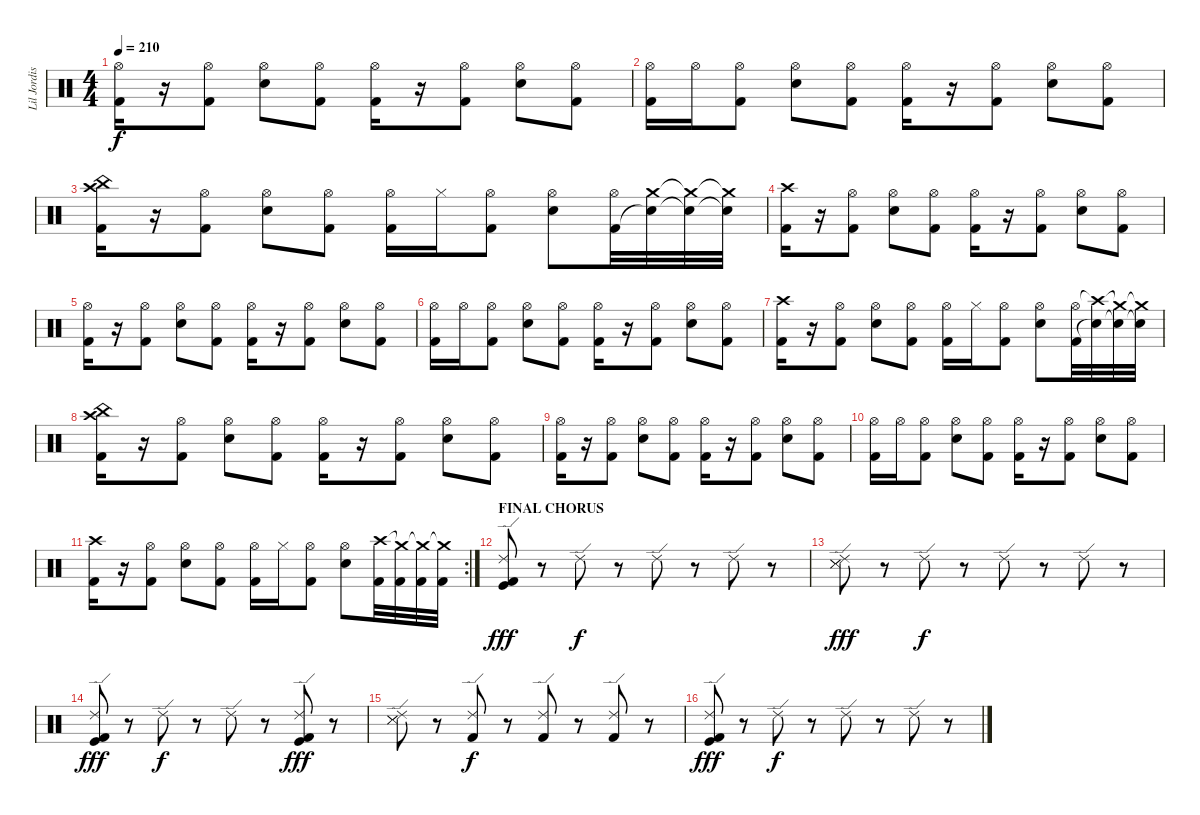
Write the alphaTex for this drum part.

\track ("Lil Jordison" "Lil Jordis") {instrument percussion}
\staff {score}
\articulation defaults
\ts (4 4)
\tempo 210
\clef neutral
\ks c
("Hi-Hat (open)" "Kick (hit) 2").16{dy f} r.16 ("Hi-Hat (open)" "Kick (hit) 2").8 ("Hi-Hat (open)" "Electric Snare (hit)").8 ("Hi-Hat (open)" "Kick (hit) 2").8 ("Hi-Hat (open)" "Kick (hit) 2").16 r.16 ("Hi-Hat (open)" "Kick (hit) 2").8 ("Hi-Hat (open)" "Electric Snare (hit)").8 ("Hi-Hat (open)" "Kick (hit) 2").8 |
("Hi-Hat (open)" "Kick (hit) 2").16 "Hi-Hat (open)".16 ("Hi-Hat (open)" "Kick (hit) 2").8 ("Hi-Hat (open)" "Electric Snare (hit)").8 ("Hi-Hat (open)" "Kick (hit) 2").8 ("Hi-Hat (open)" "Kick (hit) 2").16 r.16 ("Hi-Hat (open)" "Kick (hit) 2").8 ("Hi-Hat (open)" "Electric Snare (hit)").8 ("Hi-Hat (open)" "Kick (hit) 2").8 |
("Crash high (hit)" "China (hit)" "Kick (hit) 2").16 r.16 ("Hi-Hat (open)" "Kick (hit) 2").8 ("Hi-Hat (open)" "Electric Snare (hit)").8 ("Hi-Hat (open)" "Kick (hit) 2").8 ("Hi-Hat (open)" "Kick (hit) 2").16 "Hi-Hat (closed)".16 ("Hi-Hat (open)" "Kick (hit) 2").8 ("Hi-Hat (open)" "Electric Snare (hit)").8 ("Hi-Hat (open)" "Kick (hit) 2").32 ("Crash medium (hit)" "Electric Snare (hit)"{t}).32 ("Crash medium (hit)"{t} "Electric Snare (hit)"{t}).32 ("Crash medium (hit)"{t} "Electric Snare (hit)"{t}).32 |
("Crash high (hit)" "Kick (hit) 2").16 r.16 ("Hi-Hat (open)" "Kick (hit) 2").8 ("Hi-Hat (open)" "Electric Snare (hit)").8 ("Hi-Hat (open)" "Kick (hit) 2").8 ("Hi-Hat (open)" "Kick (hit) 2").16 r.16 ("Hi-Hat (open)" "Kick (hit) 2").8 ("Hi-Hat (open)" "Electric Snare (hit)").8 ("Hi-Hat (open)" "Kick (hit) 2").8 |
("Hi-Hat (open)" "Kick (hit) 2").16 r.16 ("Hi-Hat (open)" "Kick (hit) 2").8 ("Hi-Hat (open)" "Electric Snare (hit)").8 ("Hi-Hat (open)" "Kick (hit) 2").8 ("Hi-Hat (open)" "Kick (hit) 2").16 r.16 ("Hi-Hat (open)" "Kick (hit) 2").8 ("Hi-Hat (open)" "Electric Snare (hit)").8 ("Hi-Hat (open)" "Kick (hit) 2").8 |
("Hi-Hat (open)" "Kick (hit) 2").16 "Hi-Hat (open)".16 ("Hi-Hat (open)" "Kick (hit) 2").8 ("Hi-Hat (open)" "Electric Snare (hit)").8 ("Hi-Hat (open)" "Kick (hit) 2").8 ("Hi-Hat (open)" "Kick (hit) 2").16 r.16 ("Hi-Hat (open)" "Kick (hit) 2").8 ("Hi-Hat (open)" "Electric Snare (hit)").8 ("Hi-Hat (open)" "Kick (hit) 2").8 |
("Crash high (hit)" "Kick (hit) 2").16 r.16 ("Hi-Hat (open)" "Kick (hit) 2").8 ("Hi-Hat (open)" "Electric Snare (hit)").8 ("Hi-Hat (open)" "Kick (hit) 2").8 ("Hi-Hat (open)" "Kick (hit) 2").16 "Hi-Hat (closed)".16 ("Hi-Hat (open)" "Kick (hit) 2").8 ("Hi-Hat (open)" "Electric Snare (hit)").8 ("Hi-Hat (open)" "Kick (hit) 2").32 ("Crash high (hit)"{t} "Electric Snare (hit)"{t}).32 ("Crash medium (hit)"{t} "Electric Snare (hit)"{t}).32 ("Crash medium (hit)"{t} "Electric Snare (hit)"{t}).32 |
("Crash high (hit)" "China (hit)" "Kick (hit) 2").16 r.16 ("Hi-Hat (open)" "Kick (hit) 2").8 ("Hi-Hat (open)" "Electric Snare (hit)").8 ("Hi-Hat (open)" "Kick (hit) 2").8 ("Hi-Hat (open)" "Kick (hit) 2").16 r.16 ("Hi-Hat (open)" "Kick (hit) 2").8 ("Hi-Hat (open)" "Electric Snare (hit)").8 ("Hi-Hat (open)" "Kick (hit) 2").8 |
("Hi-Hat (open)" "Kick (hit) 2").16 r.16 ("Hi-Hat (open)" "Kick (hit) 2").8 ("Hi-Hat (open)" "Electric Snare (hit)").8 ("Hi-Hat (open)" "Kick (hit) 2").8 ("Hi-Hat (open)" "Kick (hit) 2").16 r.16 ("Hi-Hat (open)" "Kick (hit) 2").8 ("Hi-Hat (open)" "Electric Snare (hit)").8 ("Hi-Hat (open)" "Kick (hit) 2").8 |
("Hi-Hat (open)" "Kick (hit) 2").16 "Hi-Hat (open)".16 ("Hi-Hat (open)" "Kick (hit) 2").8 ("Hi-Hat (open)" "Electric Snare (hit)").8 ("Hi-Hat (open)" "Kick (hit) 2").8 ("Hi-Hat (open)" "Kick (hit) 2").16 r.16 ("Hi-Hat (open)" "Kick (hit) 2").8 ("Hi-Hat (open)" "Electric Snare (hit)").8 ("Hi-Hat (open)" "Kick (hit) 2").8 |
\rc 2
("Crash high (hit)" "Kick (hit) 2").16 r.16 ("Hi-Hat (open)" "Kick (hit) 2").8 ("Hi-Hat (open)" "Electric Snare (hit)").8 ("Hi-Hat (open)" "Kick (hit) 2").8 ("Hi-Hat (open)" "Kick (hit) 2").16 "Hi-Hat (closed)".16 ("Hi-Hat (open)" "Kick (hit) 2").8 ("Hi-Hat (open)" "Electric Snare (hit)").8 ("Crash high (hit)" "Kick (hit) 2").32 ("Crash medium (hit)"{t} "Kick (hit) 2").32 ("Crash medium (hit)"{t} "Kick (hit) 2").32 ("Crash medium (hit)"{t} "Kick (hit) 2").32 |
\section ("" "FINAL CHORUS")
("Ride (edge) 2" "Kick (hit)" "Kick (hit) 2").8{dy fff} r.8 "Ride (edge) 2".8{dy f} r.8 "Ride (edge) 2".8 r.8 "Ride (edge) 2".8 r.8 |
("Ride (edge) 2" "Snare (side stick) 3" "Snare (side stick) 3").8{dy fff} r.8 "Ride (edge) 2".8{dy f} r.8 "Ride (edge) 2".8 r.8 "Ride (edge) 2".8 r.8 |
("Ride (edge) 2" "Kick (hit)" "Kick (hit) 2").8{dy fff} r.8 "Ride (edge) 2".8{dy f} r.8 "Ride (edge) 2".8 r.8 ("Ride (edge) 2" "Kick (hit)" "Kick (hit) 2").8{dy fff} r.8 |
("Ride (edge) 2" "Snare (side stick) 3" "Snare (side stick) 3").8 r.8 ("Ride (edge) 2" "Kick (hit) 2").8{dy f} r.8 ("Ride (edge) 2" "Kick (hit) 2").8 r.8 ("Ride (edge) 2" "Kick (hit) 2").8 r.8 |
("Ride (edge) 2" "Kick (hit)" "Kick (hit) 2").8{dy fff} r.8 "Ride (edge) 2".8{dy f} r.8 "Ride (edge) 2".8 r.8 "Ride (edge) 2".8 r.8
